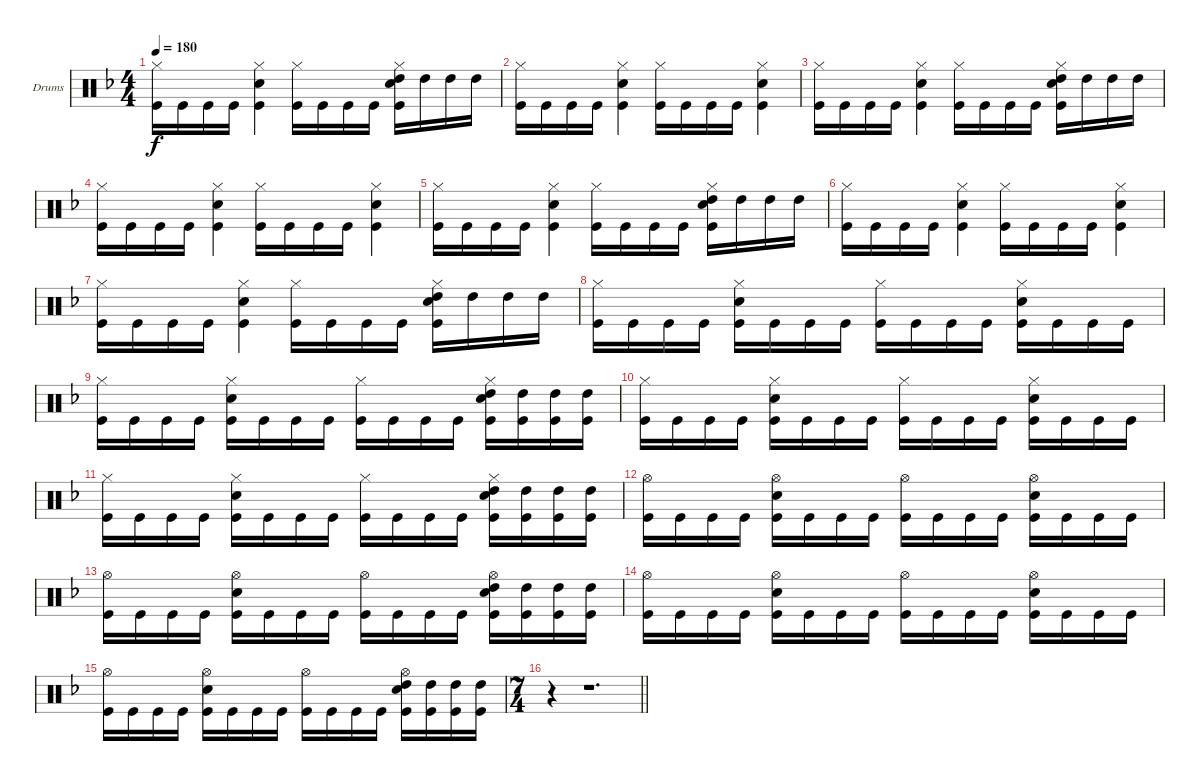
\bracketExtendMode groupsimilarinstruments
\firstSystemTrackNameOrientation horizontal
\otherSystemsTrackNameOrientation horizontal
\track ("Drumkit" "Drums") {instrument percussion}
\staff {score}
\articulation defaults
\ts (4 4)
\tempo 180
\clef neutral
\ks dminor
("Hi-Hat (closed)" "Kick (hit)").16{dy f} "Kick (hit)".16 "Kick (hit)".16 "Kick (hit)".16 ("Hi-Hat (closed)" "Snare (hit) 2" "Kick (hit)").4 ("Hi-Hat (closed)" "Kick (hit)").16 "Kick (hit)".16 "Kick (hit)".16 "Kick (hit)".16 ("Hi-Hat (closed)" "Snare (hit) 2" "Kick (hit)" "High Tom (hit)").16 "High Tom (hit)".16 "High Tom (hit)".16 "High Tom (hit)".16 |
("Hi-Hat (closed)" "Kick (hit)").16 "Kick (hit)".16 "Kick (hit)".16 "Kick (hit)".16 ("Hi-Hat (closed)" "Snare (hit) 2" "Kick (hit)").4 ("Hi-Hat (closed)" "Kick (hit)").16 "Kick (hit)".16 "Kick (hit)".16 "Kick (hit)".16 ("Hi-Hat (closed)" "Snare (hit) 2" "Kick (hit)").4 |
("Hi-Hat (closed)" "Kick (hit)").16 "Kick (hit)".16 "Kick (hit)".16 "Kick (hit)".16 ("Hi-Hat (closed)" "Snare (hit) 2" "Kick (hit)").4 ("Hi-Hat (closed)" "Kick (hit)").16 "Kick (hit)".16 "Kick (hit)".16 "Kick (hit)".16 ("Hi-Hat (closed)" "Snare (hit) 2" "Kick (hit)" "High Tom (hit)").16 "High Tom (hit)".16 "High Tom (hit)".16 "High Tom (hit)".16 |
("Hi-Hat (closed)" "Kick (hit)").16 "Kick (hit)".16 "Kick (hit)".16 "Kick (hit)".16 ("Hi-Hat (closed)" "Snare (hit) 2" "Kick (hit)").4 ("Hi-Hat (closed)" "Kick (hit)").16 "Kick (hit)".16 "Kick (hit)".16 "Kick (hit)".16 ("Hi-Hat (closed)" "Snare (hit) 2" "Kick (hit)").4 |
("Hi-Hat (closed)" "Kick (hit)").16 "Kick (hit)".16 "Kick (hit)".16 "Kick (hit)".16 ("Hi-Hat (closed)" "Snare (hit) 2" "Kick (hit)").4 ("Hi-Hat (closed)" "Kick (hit)").16 "Kick (hit)".16 "Kick (hit)".16 "Kick (hit)".16 ("Hi-Hat (closed)" "Snare (hit) 2" "Kick (hit)" "High Tom (hit)").16 "High Tom (hit)".16 "High Tom (hit)".16 "High Tom (hit)".16 |
("Hi-Hat (closed)" "Kick (hit)").16 "Kick (hit)".16 "Kick (hit)".16 "Kick (hit)".16 ("Hi-Hat (closed)" "Snare (hit) 2" "Kick (hit)").4 ("Hi-Hat (closed)" "Kick (hit)").16 "Kick (hit)".16 "Kick (hit)".16 "Kick (hit)".16 ("Hi-Hat (closed)" "Snare (hit) 2" "Kick (hit)").4 |
("Hi-Hat (closed)" "Kick (hit)").16 "Kick (hit)".16 "Kick (hit)".16 "Kick (hit)".16 ("Hi-Hat (closed)" "Snare (hit) 2" "Kick (hit)").4 ("Hi-Hat (closed)" "Kick (hit)").16 "Kick (hit)".16 "Kick (hit)".16 "Kick (hit)".16 ("Hi-Hat (closed)" "Snare (hit) 2" "Kick (hit)" "High Tom (hit)").16 "High Tom (hit)".16 "High Tom (hit)".16 "High Tom (hit)".16 |
("Hi-Hat (closed)" "Kick (hit)").16 "Kick (hit)".16 "Kick (hit)".16 "Kick (hit)".16 ("Hi-Hat (closed)" "Snare (hit) 2" "Kick (hit)").16 "Kick (hit)".16 "Kick (hit)".16 "Kick (hit)".16 ("Hi-Hat (closed)" "Kick (hit)").16 "Kick (hit)".16 "Kick (hit)".16 "Kick (hit)".16 ("Hi-Hat (closed)" "Snare (hit) 2" "Kick (hit)").16 "Kick (hit)".16 "Kick (hit)".16 "Kick (hit)".16 |
("Hi-Hat (closed)" "Kick (hit)").16 "Kick (hit)".16 "Kick (hit)".16 "Kick (hit)".16 ("Hi-Hat (closed)" "Snare (hit) 2" "Kick (hit)").16 "Kick (hit)".16 "Kick (hit)".16 "Kick (hit)".16 ("Hi-Hat (closed)" "Kick (hit)").16 "Kick (hit)".16 "Kick (hit)".16 "Kick (hit)".16 ("Hi-Hat (closed)" "Snare (hit) 2" "Kick (hit)" "High Tom (hit)").16 ("Kick (hit)" "High Tom (hit)").16 ("Kick (hit)" "High Tom (hit)").16 ("Kick (hit)" "High Tom (hit)").16 |
("Hi-Hat (closed)" "Kick (hit)").16 "Kick (hit)".16 "Kick (hit)".16 "Kick (hit)".16 ("Hi-Hat (closed)" "Snare (hit) 2" "Kick (hit)").16 "Kick (hit)".16 "Kick (hit)".16 "Kick (hit)".16 ("Hi-Hat (closed)" "Kick (hit)").16 "Kick (hit)".16 "Kick (hit)".16 "Kick (hit)".16 ("Hi-Hat (closed)" "Snare (hit) 2" "Kick (hit)").16 "Kick (hit)".16 "Kick (hit)".16 "Kick (hit)".16 |
("Hi-Hat (closed)" "Kick (hit)").16 "Kick (hit)".16 "Kick (hit)".16 "Kick (hit)".16 ("Hi-Hat (closed)" "Snare (hit) 2" "Kick (hit)").16 "Kick (hit)".16 "Kick (hit)".16 "Kick (hit)".16 ("Hi-Hat (closed)" "Kick (hit)").16 "Kick (hit)".16 "Kick (hit)".16 "Kick (hit)".16 ("Hi-Hat (closed)" "Snare (hit) 2" "Kick (hit)" "High Tom (hit)").16 ("Kick (hit)" "High Tom (hit)").16 ("Kick (hit)" "High Tom (hit)").16 ("Kick (hit)" "High Tom (hit)").16 |
("Hi-Hat (open)" "Kick (hit)").16 "Kick (hit)".16 "Kick (hit)".16 "Kick (hit)".16 ("Hi-Hat (open)" "Snare (hit) 2" "Kick (hit)").16 "Kick (hit)".16 "Kick (hit)".16 "Kick (hit)".16 ("Hi-Hat (open)" "Kick (hit)").16 "Kick (hit)".16 "Kick (hit)".16 "Kick (hit)".16 ("Hi-Hat (open)" "Snare (hit) 2" "Kick (hit)").16 "Kick (hit)".16 "Kick (hit)".16 "Kick (hit)".16 |
("Hi-Hat (open)" "Kick (hit)").16 "Kick (hit)".16 "Kick (hit)".16 "Kick (hit)".16 ("Hi-Hat (open)" "Snare (hit) 2" "Kick (hit)").16 "Kick (hit)".16 "Kick (hit)".16 "Kick (hit)".16 ("Hi-Hat (open)" "Kick (hit)").16 "Kick (hit)".16 "Kick (hit)".16 "Kick (hit)".16 ("Hi-Hat (open)" "Snare (hit) 2" "Kick (hit)" "High Tom (hit)").16 ("Kick (hit)" "High Tom (hit)").16 ("Kick (hit)" "High Tom (hit)").16 ("Kick (hit)" "High Tom (hit)").16 |
("Hi-Hat (open)" "Kick (hit)").16 "Kick (hit)".16 "Kick (hit)".16 "Kick (hit)".16 ("Hi-Hat (open)" "Snare (hit) 2" "Kick (hit)").16 "Kick (hit)".16 "Kick (hit)".16 "Kick (hit)".16 ("Hi-Hat (open)" "Kick (hit)").16 "Kick (hit)".16 "Kick (hit)".16 "Kick (hit)".16 ("Hi-Hat (open)" "Snare (hit) 2" "Kick (hit)").16 "Kick (hit)".16 "Kick (hit)".16 "Kick (hit)".16 |
("Hi-Hat (open)" "Kick (hit)").16 "Kick (hit)".16 "Kick (hit)".16 "Kick (hit)".16 ("Hi-Hat (open)" "Snare (hit) 2" "Kick (hit)").16 "Kick (hit)".16 "Kick (hit)".16 "Kick (hit)".16 ("Hi-Hat (open)" "Kick (hit)").16 "Kick (hit)".16 "Kick (hit)".16 "Kick (hit)".16 ("Hi-Hat (open)" "Snare (hit) 2" "Kick (hit)" "High Tom (hit)").16 ("Kick (hit)" "High Tom (hit)").16 ("Kick (hit)" "High Tom (hit)").16 ("Kick (hit)" "High Tom (hit)").16 |
\ts (7 4)
\beaming (8 6 4 4)
\barLineRight lightlight
r.4 r.1{d}
